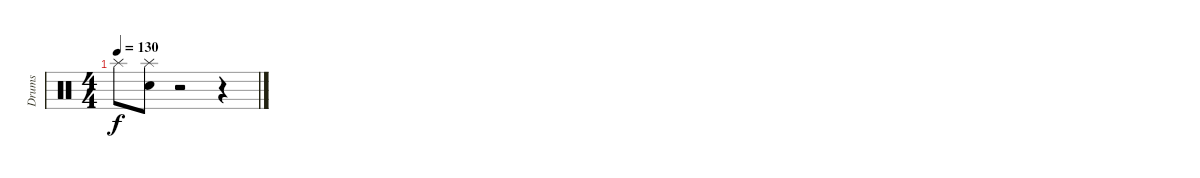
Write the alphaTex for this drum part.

\track ("Drums" "Drums") {instrument percussion}
\staff {score}
\articulation defaults
\ts (4 4)
\tempo 130
\clef neutral
\ks c "Splash (hit)".8{dy f}
("Splash (hit)" "Snare (hit) 2").8 r.2 r.4
